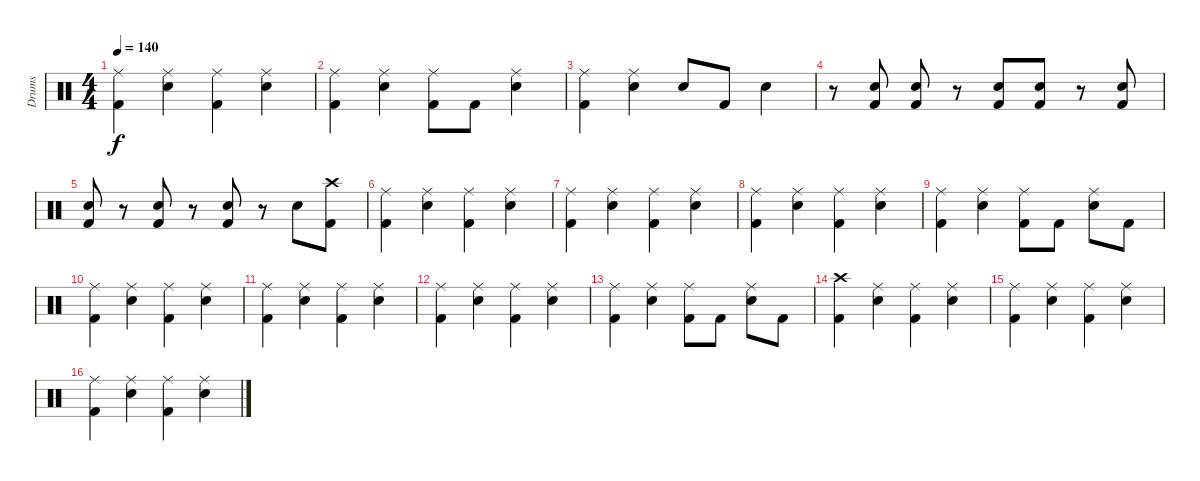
\track ("Drums" "Drums") {instrument percussion}
\staff {score}
\articulation defaults
\ts (4 4)
\tempo 140
\clef neutral
\ks c
("Ride (middle)" "Kick (hit) 2").4{dy f} ("Ride (middle)" "Electric Snare (hit)").4 ("Ride (middle)" "Kick (hit) 2").4 ("Ride (middle)" "Electric Snare (hit)").4 |
("Ride (middle)" "Kick (hit) 2").4 ("Ride (middle)" "Electric Snare (hit)").4 ("Ride (middle)" "Kick (hit) 2").8 "Kick (hit) 2".8 ("Ride (middle)" "Electric Snare (hit)").4 |
("Ride (middle)" "Kick (hit) 2").4 ("Ride (middle)" "Electric Snare (hit)").4 "Electric Snare (hit)".8 "Kick (hit) 2".8 "Electric Snare (hit)".4 |
r.8 ("Electric Snare (hit)" "Kick (hit) 2").8 ("Electric Snare (hit)" "Kick (hit) 2").8 r.8 ("Electric Snare (hit)" "Kick (hit) 2").8 ("Electric Snare (hit)" "Kick (hit) 2").8 r.8 ("Electric Snare (hit)" "Kick (hit) 2").8 |
("Electric Snare (hit)" "Kick (hit) 2").8 r.8 ("Electric Snare (hit)" "Kick (hit) 2").8 r.8 ("Electric Snare (hit)" "Kick (hit) 2").8 r.8 "Electric Snare (hit)".8 ("Crash high (hit)" "Kick (hit) 2").8 |
("Ride (middle)" "Kick (hit) 2").4 ("Ride (middle)" "Electric Snare (hit)").4 ("Ride (middle)" "Kick (hit) 2").4 ("Ride (middle)" "Electric Snare (hit)").4 |
("Ride (middle)" "Kick (hit) 2").4 ("Ride (middle)" "Electric Snare (hit)").4 ("Ride (middle)" "Kick (hit) 2").4 ("Ride (middle)" "Electric Snare (hit)").4 |
("Ride (middle)" "Kick (hit) 2").4 ("Ride (middle)" "Electric Snare (hit)").4 ("Ride (middle)" "Kick (hit) 2").4 ("Ride (middle)" "Electric Snare (hit)").4 |
("Ride (middle)" "Kick (hit) 2").4 ("Ride (middle)" "Electric Snare (hit)").4 ("Ride (middle)" "Kick (hit) 2").8 "Kick (hit) 2".8 ("Ride (middle)" "Electric Snare (hit)").8 "Kick (hit) 2".8 |
("Ride (middle)" "Kick (hit) 2").4 ("Ride (middle)" "Electric Snare (hit)").4 ("Ride (middle)" "Kick (hit) 2").4 ("Ride (middle)" "Electric Snare (hit)").4 |
("Ride (middle)" "Kick (hit) 2").4 ("Ride (middle)" "Electric Snare (hit)").4 ("Ride (middle)" "Kick (hit) 2").4 ("Ride (middle)" "Electric Snare (hit)").4 |
("Ride (middle)" "Kick (hit) 2").4 ("Ride (middle)" "Electric Snare (hit)").4 ("Ride (middle)" "Kick (hit) 2").4 ("Ride (middle)" "Electric Snare (hit)").4 |
("Ride (middle)" "Kick (hit) 2").4 ("Ride (middle)" "Electric Snare (hit)").4 ("Ride (middle)" "Kick (hit) 2").8 "Kick (hit) 2".8 ("Ride (middle)" "Electric Snare (hit)").8 "Kick (hit) 2".8 |
("Crash high (hit)" "Kick (hit) 2").4 ("Ride (middle)" "Electric Snare (hit)").4 ("Ride (middle)" "Kick (hit) 2").4 ("Ride (middle)" "Electric Snare (hit)").4 |
("Ride (middle)" "Kick (hit) 2").4 ("Ride (middle)" "Electric Snare (hit)").4 ("Ride (middle)" "Kick (hit) 2").4 ("Ride (middle)" "Electric Snare (hit)").4 |
("Ride (middle)" "Kick (hit) 2").4 ("Ride (middle)" "Electric Snare (hit)").4 ("Ride (middle)" "Kick (hit) 2").4 ("Ride (middle)" "Electric Snare (hit)").4
